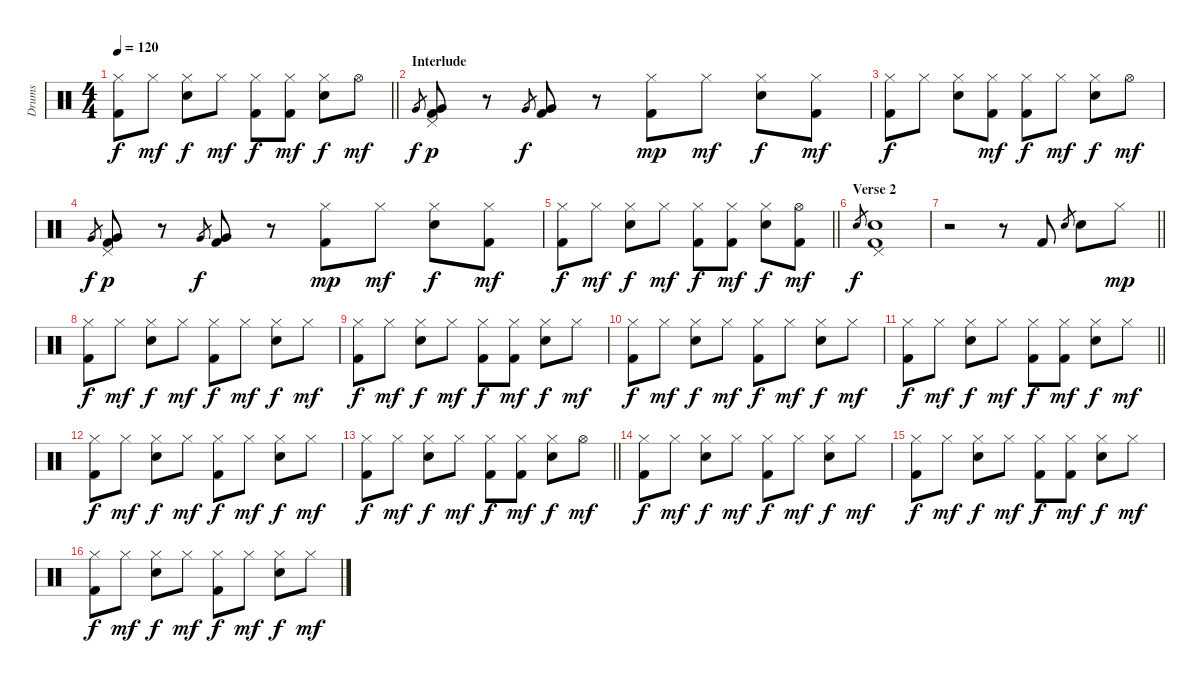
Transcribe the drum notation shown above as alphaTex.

\track ("Drums" "Drums") {instrument percussion}
\staff {score}
\articulation defaults
\ts (4 4)
\tempo 120
\clef neutral
\barLineRight lightlight
\ks c
("Hi-Hat (closed)" "Kick (hit) 2").8{dy f} "Hi-Hat (closed)".8{dy mf} ("Hi-Hat (closed)" "Snare (hit) 2").8{dy f} "Hi-Hat (closed)".8{dy mf} ("Hi-Hat (closed)" "Kick (hit) 2").8{dy f} ("Hi-Hat (closed)" "Kick (hit) 2").8{dy mf} ("Hi-Hat (closed)" "Snare (hit) 2").8{dy f} "Hi-Hat (open)".8{dy mf} |
\section ("" "Interlude")
"Very Low Tom (hit)".8{gr dy f} ("Pedal Hi-Hat (hit)" "Very Low Tom (hit)" "Kick (hit) 2").8{dy p} r.8 "Very Low Tom (hit)".8{gr dy f} ("Very Low Tom (hit)" "Kick (hit) 2").8 r.8 ("Hi-Hat (closed)" "Kick (hit) 2").8{dy mp} "Hi-Hat (closed)".8{dy mf} ("Hi-Hat (closed)" "Snare (hit) 2").8{dy f} ("Hi-Hat (closed)" "Kick (hit) 2").8{dy mf} |
("Hi-Hat (closed)" "Kick (hit) 2").8{dy f} "Hi-Hat (closed)".8 ("Hi-Hat (closed)" "Snare (hit) 2").8 ("Hi-Hat (closed)" "Kick (hit) 2").8{dy mf} ("Hi-Hat (closed)" "Kick (hit) 2").8{dy f} "Hi-Hat (closed)".8{dy mf} ("Hi-Hat (closed)" "Snare (hit) 2").8{dy f} "Hi-Hat (open)".8{dy mf} |
"Very Low Tom (hit)".8{gr dy f} ("Pedal Hi-Hat (hit)" "Very Low Tom (hit)" "Kick (hit) 2").8{dy p} r.8 "Very Low Tom (hit)".8{gr dy f} ("Very Low Tom (hit)" "Kick (hit) 2").8 r.8 ("Hi-Hat (closed)" "Kick (hit) 2").8{dy mp} "Hi-Hat (closed)".8{dy mf} ("Hi-Hat (closed)" "Snare (hit) 2").8{dy f} ("Hi-Hat (closed)" "Kick (hit) 2").8{dy mf} |
\barLineRight lightlight
("Hi-Hat (closed)" "Kick (hit) 2").8{dy f} "Hi-Hat (closed)".8{dy mf} ("Hi-Hat (closed)" "Snare (hit) 2").8{dy f} "Hi-Hat (closed)".8{dy mf} ("Hi-Hat (closed)" "Kick (hit) 2").8{dy f} ("Hi-Hat (closed)" "Kick (hit) 2").8{dy mf} ("Hi-Hat (closed)" "Snare (hit) 2").8{dy f} ("Hi-Hat (open)" "Kick (hit) 2").8{dy mf} |
\section ("" "Verse 2")
"Snare (hit) 2".8{gr dy f} ("Pedal Hi-Hat (hit)" "Snare (hit) 2" "Kick (hit) 2").1 |
\barLineRight lightlight
r.2 r.8 "Kick (hit) 2".8 "Snare (hit) 2".8{gr} "Snare (hit) 2".8 "Hi-Hat (closed)".8{dy mp} |
("Hi-Hat (closed)" "Kick (hit) 2").8{dy f} "Hi-Hat (closed)".8{dy mf} ("Hi-Hat (closed)" "Snare (hit) 2").8{dy f} "Hi-Hat (closed)".8{dy mf} ("Hi-Hat (closed)" "Kick (hit) 2").8{dy f} "Hi-Hat (closed)".8{dy mf} ("Hi-Hat (closed)" "Snare (hit) 2").8{dy f} "Hi-Hat (closed)".8{dy mf} |
("Hi-Hat (closed)" "Kick (hit) 2").8{dy f} "Hi-Hat (closed)".8{dy mf} ("Hi-Hat (closed)" "Snare (hit) 2").8{dy f} "Hi-Hat (closed)".8{dy mf} ("Hi-Hat (closed)" "Kick (hit) 2").8{dy f} ("Hi-Hat (closed)" "Kick (hit) 2").8{dy mf} ("Hi-Hat (closed)" "Snare (hit) 2").8{dy f} "Hi-Hat (closed)".8{dy mf} |
("Hi-Hat (closed)" "Kick (hit) 2").8{dy f} "Hi-Hat (closed)".8{dy mf} ("Hi-Hat (closed)" "Snare (hit) 2").8{dy f} "Hi-Hat (closed)".8{dy mf} ("Hi-Hat (closed)" "Kick (hit) 2").8{dy f} "Hi-Hat (closed)".8{dy mf} ("Hi-Hat (closed)" "Snare (hit) 2").8{dy f} "Hi-Hat (closed)".8{dy mf} |
\barLineRight lightlight
("Hi-Hat (closed)" "Kick (hit) 2").8{dy f} "Hi-Hat (closed)".8{dy mf} ("Hi-Hat (closed)" "Snare (hit) 2").8{dy f} "Hi-Hat (closed)".8{dy mf} ("Hi-Hat (closed)" "Kick (hit) 2").8{dy f} ("Hi-Hat (closed)" "Kick (hit) 2").8{dy mf} ("Hi-Hat (closed)" "Snare (hit) 2").8{dy f} "Hi-Hat (closed)".8{dy mf} |
("Hi-Hat (closed)" "Kick (hit) 2").8{dy f} "Hi-Hat (closed)".8{dy mf} ("Hi-Hat (closed)" "Snare (hit) 2").8{dy f} "Hi-Hat (closed)".8{dy mf} ("Hi-Hat (closed)" "Kick (hit) 2").8{dy f} "Hi-Hat (closed)".8{dy mf} ("Hi-Hat (closed)" "Snare (hit) 2").8{dy f} "Hi-Hat (closed)".8{dy mf} |
\barLineRight lightlight
("Hi-Hat (closed)" "Kick (hit) 2").8{dy f} "Hi-Hat (closed)".8{dy mf} ("Hi-Hat (closed)" "Snare (hit) 2").8{dy f} "Hi-Hat (closed)".8{dy mf} ("Hi-Hat (closed)" "Kick (hit) 2").8{dy f} ("Hi-Hat (closed)" "Kick (hit) 2").8{dy mf} ("Hi-Hat (closed)" "Snare (hit) 2").8{dy f} "Hi-Hat (open)".8{dy mf} |
("Hi-Hat (closed)" "Kick (hit) 2").8{dy f} "Hi-Hat (closed)".8{dy mf} ("Hi-Hat (closed)" "Snare (hit) 2").8{dy f} "Hi-Hat (closed)".8{dy mf} ("Hi-Hat (closed)" "Kick (hit) 2").8{dy f} "Hi-Hat (closed)".8{dy mf} ("Hi-Hat (closed)" "Snare (hit) 2").8{dy f} "Hi-Hat (closed)".8{dy mf} |
("Hi-Hat (closed)" "Kick (hit) 2").8{dy f} "Hi-Hat (closed)".8{dy mf} ("Hi-Hat (closed)" "Snare (hit) 2").8{dy f} "Hi-Hat (closed)".8{dy mf} ("Hi-Hat (closed)" "Kick (hit) 2").8{dy f} ("Hi-Hat (closed)" "Kick (hit) 2").8{dy mf} ("Hi-Hat (closed)" "Snare (hit) 2").8{dy f} "Hi-Hat (closed)".8{dy mf} |
("Hi-Hat (closed)" "Kick (hit) 2").8{dy f} "Hi-Hat (closed)".8{dy mf} ("Hi-Hat (closed)" "Snare (hit) 2").8{dy f} "Hi-Hat (closed)".8{dy mf} ("Hi-Hat (closed)" "Kick (hit) 2").8{dy f} "Hi-Hat (closed)".8{dy mf} ("Hi-Hat (closed)" "Snare (hit) 2").8{dy f} "Hi-Hat (closed)".8{dy mf}
